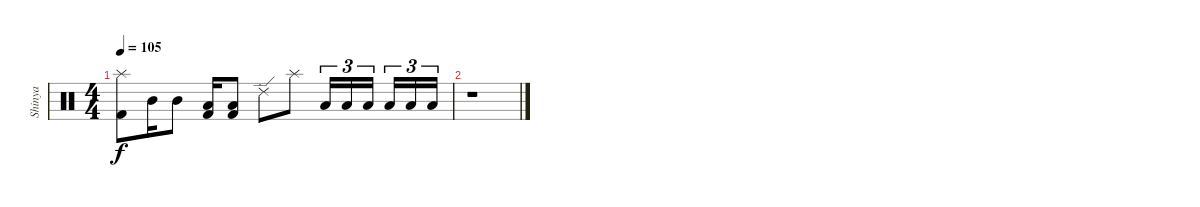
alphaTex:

\track ("Shinya" "Shinya") {instrument percussion}
\staff {score}
\articulation defaults
\ts (4 4)
\tempo 105
\clef neutral
\ks c
("Splash (hit)" "Kick (hit) 2").8{dy f} "Mid Tom (hit)".16 "Mid Tom (hit)".8 ("Low Tom (hit)" "Kick (hit) 2").16 ("Low Tom (hit)" "Kick (hit) 2").8 "Ride (edge) 2".8 "Splash (hit)".8 "Low Tom (hit)".16{tu (3 2)} "Low Tom (hit)".16{tu (3 2)} "Low Tom (hit)".16{tu (3 2) beam splitsecondary} "Low Tom (hit)".16{tu (3 2)} "Low Tom (hit)".16{tu (3 2)} "Low Tom (hit)".16{tu (3 2)} |
r.1
